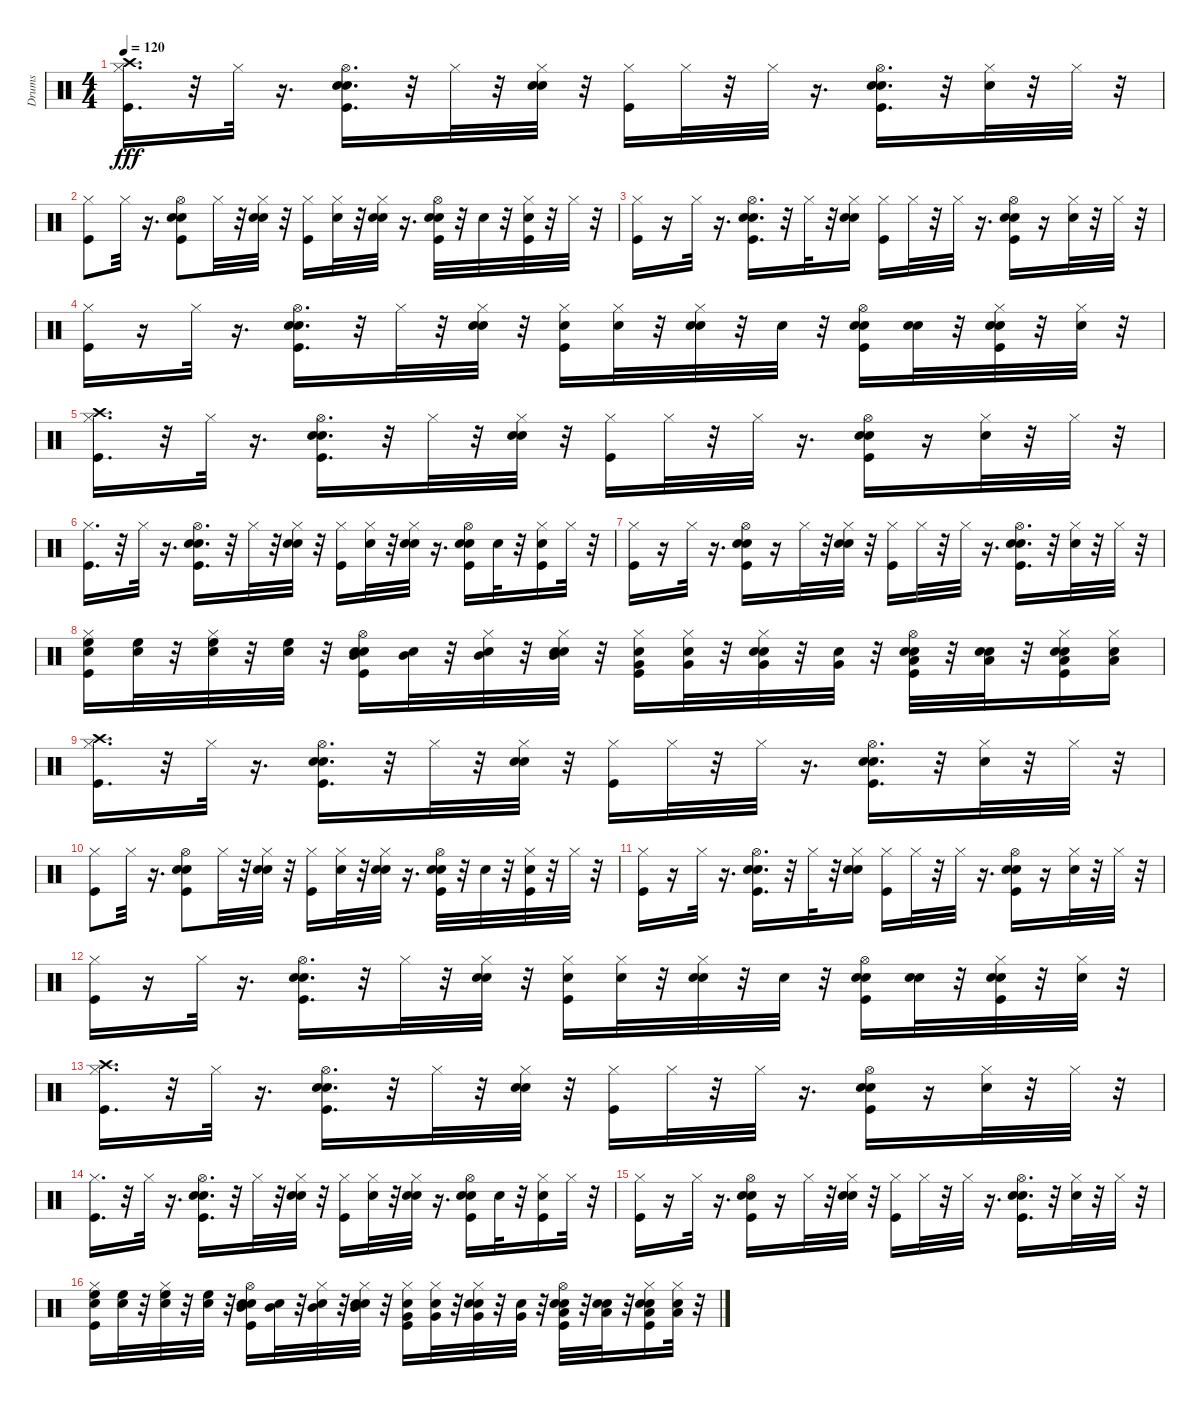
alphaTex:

\track ("Drums" "Drums") {instrument percussion}
\staff {score}
\articulation defaults
\ts (4 4)
\tempo 120
\clef neutral
\ks c
("Hi-Hat (closed)" "Kick (hit)" "Crash high (hit)").16{d dy fff} r.32 "Hi-Hat (closed)".32 r.16{d} ("Hi-Hat (open)" "Kick (hit)" "Hand Clap (hit)" "Electric Snare (hit)").16{d} r.32 "Hi-Hat (closed)".32 r.32 ("Hi-Hat (closed)" "Hand Clap (hit)" "Electric Snare (hit)").32 r.32 ("Hi-Hat (closed)" "Kick (hit)").16 "Hi-Hat (closed)".32 r.32 "Hi-Hat (closed)".32 r.16{d} ("Hi-Hat (open)" "Kick (hit)" "Hand Clap (hit)" "Electric Snare (hit)").16{d} r.32 ("Hi-Hat (closed)" "Hand Clap (hit)").32 r.32 "Hi-Hat (closed)".32 r.32 |
("Hi-Hat (closed)" "Kick (hit)").8 "Hi-Hat (closed)".32 r.16{d} ("Hi-Hat (open)" "Kick (hit)" "Hand Clap (hit)" "Electric Snare (hit)").8 "Hi-Hat (closed)".32 r.32 ("Hi-Hat (closed)" "Hand Clap (hit)" "Electric Snare (hit)").32 r.32 ("Hi-Hat (closed)" "Kick (hit)").16 ("Hi-Hat (closed)" "Electric Snare (hit)").32 r.32 ("Hi-Hat (closed)" "Hand Clap (hit)" "Electric Snare (hit)").32 r.16{d} ("Hi-Hat (open)" "Kick (hit)" "Hand Clap (hit)" "Electric Snare (hit)").32 r.32 "Hand Clap (hit)".32 r.32 ("Hi-Hat (closed)" "Kick (hit)" "Hand Clap (hit)").32 r.32 "Hi-Hat (closed)".32 r.32 |
("Hi-Hat (closed)" "Kick (hit)").16 r.16 "Hi-Hat (closed)".32 r.16{d} ("Hi-Hat (open)" "Kick (hit)" "Hand Clap (hit)" "Electric Snare (hit)").16{d} r.32 "Hi-Hat (closed)".32 r.32 ("Hi-Hat (closed)" "Hand Clap (hit)" "Electric Snare (hit)").16 ("Hi-Hat (closed)" "Kick (hit)").16 "Hi-Hat (closed)".32 r.32 "Hi-Hat (closed)".32 r.16{d} ("Hi-Hat (open)" "Kick (hit)" "Hand Clap (hit)" "Electric Snare (hit)").16 r.16 ("Hi-Hat (closed)" "Hand Clap (hit)").32 r.32 "Hi-Hat (closed)".32 r.32 |
("Hi-Hat (closed)" "Kick (hit)").16 r.16 "Hi-Hat (closed)".32 r.16{d} ("Hi-Hat (open)" "Kick (hit)" "Hand Clap (hit)" "Electric Snare (hit)").16{d} r.32 "Hi-Hat (closed)".32 r.32 ("Hi-Hat (closed)" "Hand Clap (hit)" "Electric Snare (hit)").32 r.32 ("Hi-Hat (closed)" "Kick (hit)" "Electric Snare (hit)").16 ("Hi-Hat (closed)" "Electric Snare (hit)").32 r.32 ("Hi-Hat (closed)" "Hand Clap (hit)" "Electric Snare (hit)").32 r.32 "Electric Snare (hit)".32 r.32 ("Hi-Hat (open)" "Kick (hit)" "Hand Clap (hit)" "Electric Snare (hit)").16 ("Hand Clap (hit)" "Electric Snare (hit)").32 r.32 ("Hi-Hat (closed)" "Kick (hit)" "Hand Clap (hit)" "Electric Snare (hit)").32 r.32 ("Hi-Hat (closed)" "Electric Snare (hit)").32 r.32 |
("Hi-Hat (closed)" "Kick (hit)" "Crash high (hit)").16{d} r.32 "Hi-Hat (closed)".32 r.16{d} ("Hi-Hat (open)" "Kick (hit)" "Hand Clap (hit)" "Electric Snare (hit)").16{d} r.32 "Hi-Hat (closed)".32 r.32 ("Hi-Hat (closed)" "Hand Clap (hit)" "Electric Snare (hit)").32 r.32 ("Hi-Hat (closed)" "Kick (hit)").16 "Hi-Hat (closed)".32 r.32 "Hi-Hat (closed)".32 r.16{d} ("Hi-Hat (open)" "Kick (hit)" "Hand Clap (hit)" "Electric Snare (hit)").16 r.16 ("Hi-Hat (closed)" "Hand Clap (hit)").32 r.32 "Hi-Hat (closed)".32 r.32 |
("Hi-Hat (closed)" "Kick (hit)").16{d} r.32 "Hi-Hat (closed)".32 r.16{d} ("Hi-Hat (open)" "Kick (hit)" "Hand Clap (hit)" "Electric Snare (hit)").16{d} r.32 "Hi-Hat (closed)".32 r.32 ("Hi-Hat (closed)" "Hand Clap (hit)" "Electric Snare (hit)").32 r.32 ("Hi-Hat (closed)" "Kick (hit)").16 ("Hi-Hat (closed)" "Electric Snare (hit)").32 r.32 ("Hi-Hat (closed)" "Hand Clap (hit)" "Electric Snare (hit)").32 r.16{d} ("Hi-Hat (open)" "Kick (hit)" "Hand Clap (hit)" "Electric Snare (hit)").16 "Hand Clap (hit)".32 r.32 ("Hi-Hat (closed)" "Kick (hit)" "Hand Clap (hit)").16 "Hi-Hat (closed)".32 r.32 |
("Hi-Hat (closed)" "Kick (hit)").16 r.16 "Hi-Hat (closed)".32 r.16{d} ("Hi-Hat (open)" "Kick (hit)" "Hand Clap (hit)" "Electric Snare (hit)").16 r.16 "Hi-Hat (closed)".32 r.32 ("Hi-Hat (closed)" "Hand Clap (hit)" "Electric Snare (hit)").32 r.32 ("Hi-Hat (closed)" "Kick (hit)").16 "Hi-Hat (closed)".32 r.32 "Hi-Hat (closed)".32 r.16{d} ("Hi-Hat (open)" "Kick (hit)" "Hand Clap (hit)" "Electric Snare (hit)").16{d} r.32 ("Hi-Hat (closed)" "Hand Clap (hit)").32 r.32 "Hi-Hat (closed)".32 r.32 |
("Hi-Hat (closed)" "Kick (hit)" "High Floor Tom (hit)" "Electric Snare (hit)").16 ("High Floor Tom (hit)" "Electric Snare (hit)").32 r.32 ("Hi-Hat (closed)" "Electric Snare (hit)" "High Floor Tom (hit)").32 r.32 ("High Floor Tom (hit)" "Electric Snare (hit)").32 r.32 ("Hi-Hat (open)" "Kick (hit)" "Mid Tom (hit)" "Hand Clap (hit)" "Electric Snare (hit)").16 ("Mid Tom (hit)" "Electric Snare (hit)").32 r.32 ("Hi-Hat (closed)" "Electric Snare (hit)" "Mid Tom (hit)").32 r.32 ("Hi-Hat (closed)" "Hand Clap (hit)" "Mid Tom (hit)" "Electric Snare (hit)").32 r.32 ("Hi-Hat (closed)" "Kick (hit)" "Very Low Tom (hit)" "Electric Snare (hit)").16 ("Hi-Hat (closed)" "Electric Snare (hit)" "Very Low Tom (hit)").32 r.32 ("Hi-Hat (closed)" "Hand Clap (hit)" "Very Low Tom (hit)" "Electric Snare (hit)").32 r.32 ("Very Low Tom (hit)" "Electric Snare (hit)").32 r.32 ("Low Floor Tom (hit)" "Kick (hit)" "Hi-Hat (open)" "Hand Clap (hit)" "Electric Snare (hit)").32 r.32 ("Low Floor Tom (hit)" "Hand Clap (hit)" "Electric Snare (hit)").32 r.32 ("Low Floor Tom (hit)" "Kick (hit)" "Hi-Hat (closed)" "Hand Clap (hit)" "Electric Snare (hit)").16 ("Low Floor Tom (hit)" "Electric Snare (hit)" "Hi-Hat (closed)").16 |
("Hi-Hat (closed)" "Kick (hit)" "Crash high (hit)").16{d} r.32 "Hi-Hat (closed)".32 r.16{d} ("Hi-Hat (open)" "Kick (hit)" "Hand Clap (hit)" "Electric Snare (hit)").16{d} r.32 "Hi-Hat (closed)".32 r.32 ("Hi-Hat (closed)" "Hand Clap (hit)" "Electric Snare (hit)").32 r.32 ("Hi-Hat (closed)" "Kick (hit)").16 "Hi-Hat (closed)".32 r.32 "Hi-Hat (closed)".32 r.16{d} ("Hi-Hat (open)" "Kick (hit)" "Hand Clap (hit)" "Electric Snare (hit)").16{d} r.32 ("Hi-Hat (closed)" "Hand Clap (hit)").32 r.32 "Hi-Hat (closed)".32 r.32 |
("Hi-Hat (closed)" "Kick (hit)").8 "Hi-Hat (closed)".32 r.16{d} ("Hi-Hat (open)" "Kick (hit)" "Hand Clap (hit)" "Electric Snare (hit)").8 "Hi-Hat (closed)".32 r.32 ("Hi-Hat (closed)" "Hand Clap (hit)" "Electric Snare (hit)").32 r.32 ("Hi-Hat (closed)" "Kick (hit)").16 ("Hi-Hat (closed)" "Electric Snare (hit)").32 r.32 ("Hi-Hat (closed)" "Hand Clap (hit)" "Electric Snare (hit)").32 r.16{d} ("Hi-Hat (open)" "Kick (hit)" "Hand Clap (hit)" "Electric Snare (hit)").32 r.32 "Hand Clap (hit)".32 r.32 ("Hi-Hat (closed)" "Kick (hit)" "Hand Clap (hit)").32 r.32 "Hi-Hat (closed)".32 r.32 |
("Hi-Hat (closed)" "Kick (hit)").16 r.16 "Hi-Hat (closed)".32 r.16{d} ("Hi-Hat (open)" "Kick (hit)" "Hand Clap (hit)" "Electric Snare (hit)").16{d} r.32 "Hi-Hat (closed)".32 r.32 ("Hi-Hat (closed)" "Hand Clap (hit)" "Electric Snare (hit)").16 ("Hi-Hat (closed)" "Kick (hit)").16 "Hi-Hat (closed)".32 r.32 "Hi-Hat (closed)".32 r.16{d} ("Hi-Hat (open)" "Kick (hit)" "Hand Clap (hit)" "Electric Snare (hit)").16 r.16 ("Hi-Hat (closed)" "Hand Clap (hit)").32 r.32 "Hi-Hat (closed)".32 r.32 |
("Hi-Hat (closed)" "Kick (hit)").16 r.16 "Hi-Hat (closed)".32 r.16{d} ("Hi-Hat (open)" "Kick (hit)" "Hand Clap (hit)" "Electric Snare (hit)").16{d} r.32 "Hi-Hat (closed)".32 r.32 ("Hi-Hat (closed)" "Hand Clap (hit)" "Electric Snare (hit)").32 r.32 ("Hi-Hat (closed)" "Kick (hit)" "Electric Snare (hit)").16 ("Hi-Hat (closed)" "Electric Snare (hit)").32 r.32 ("Hi-Hat (closed)" "Hand Clap (hit)" "Electric Snare (hit)").32 r.32 "Electric Snare (hit)".32 r.32 ("Hi-Hat (open)" "Kick (hit)" "Hand Clap (hit)" "Electric Snare (hit)").16 ("Hand Clap (hit)" "Electric Snare (hit)").32 r.32 ("Hi-Hat (closed)" "Kick (hit)" "Hand Clap (hit)" "Electric Snare (hit)").32 r.32 ("Hi-Hat (closed)" "Electric Snare (hit)").32 r.32 |
("Hi-Hat (closed)" "Kick (hit)" "Crash high (hit)").16{d} r.32 "Hi-Hat (closed)".32 r.16{d} ("Hi-Hat (open)" "Kick (hit)" "Hand Clap (hit)" "Electric Snare (hit)").16{d} r.32 "Hi-Hat (closed)".32 r.32 ("Hi-Hat (closed)" "Hand Clap (hit)" "Electric Snare (hit)").32 r.32 ("Hi-Hat (closed)" "Kick (hit)").16 "Hi-Hat (closed)".32 r.32 "Hi-Hat (closed)".32 r.16{d} ("Hi-Hat (open)" "Kick (hit)" "Hand Clap (hit)" "Electric Snare (hit)").16 r.16 ("Hi-Hat (closed)" "Hand Clap (hit)").32 r.32 "Hi-Hat (closed)".32 r.32 |
("Hi-Hat (closed)" "Kick (hit)").16{d} r.32 "Hi-Hat (closed)".32 r.16{d} ("Hi-Hat (open)" "Kick (hit)" "Hand Clap (hit)" "Electric Snare (hit)").16{d} r.32 "Hi-Hat (closed)".32 r.32 ("Hi-Hat (closed)" "Hand Clap (hit)" "Electric Snare (hit)").32 r.32 ("Hi-Hat (closed)" "Kick (hit)").16 ("Hi-Hat (closed)" "Electric Snare (hit)").32 r.32 ("Hi-Hat (closed)" "Hand Clap (hit)" "Electric Snare (hit)").32 r.16{d} ("Hi-Hat (open)" "Kick (hit)" "Hand Clap (hit)" "Electric Snare (hit)").16 "Hand Clap (hit)".32 r.32 ("Hi-Hat (closed)" "Kick (hit)" "Hand Clap (hit)").16 "Hi-Hat (closed)".32 r.32 |
("Hi-Hat (closed)" "Kick (hit)").16 r.16 "Hi-Hat (closed)".32 r.16{d} ("Hi-Hat (open)" "Kick (hit)" "Hand Clap (hit)" "Electric Snare (hit)").16 r.16 "Hi-Hat (closed)".32 r.32 ("Hi-Hat (closed)" "Hand Clap (hit)" "Electric Snare (hit)").32 r.32 ("Hi-Hat (closed)" "Kick (hit)").16 "Hi-Hat (closed)".32 r.32 "Hi-Hat (closed)".32 r.16{d} ("Hi-Hat (open)" "Kick (hit)" "Hand Clap (hit)" "Electric Snare (hit)").16{d} r.32 ("Hi-Hat (closed)" "Hand Clap (hit)").32 r.32 "Hi-Hat (closed)".32 r.32 |
("Hi-Hat (closed)" "Kick (hit)" "High Floor Tom (hit)" "Electric Snare (hit)").16 ("High Floor Tom (hit)" "Electric Snare (hit)").32 r.32 ("Hi-Hat (closed)" "Electric Snare (hit)" "High Floor Tom (hit)").32 r.32 ("High Floor Tom (hit)" "Electric Snare (hit)").32 r.32 ("Hi-Hat (open)" "Kick (hit)" "Mid Tom (hit)" "Hand Clap (hit)" "Electric Snare (hit)").16 ("Mid Tom (hit)" "Electric Snare (hit)").32 r.32 ("Hi-Hat (closed)" "Electric Snare (hit)" "Mid Tom (hit)").32 r.32 ("Hi-Hat (closed)" "Hand Clap (hit)" "Mid Tom (hit)" "Electric Snare (hit)").32 r.32 ("Hi-Hat (closed)" "Kick (hit)" "Very Low Tom (hit)" "Electric Snare (hit)").16 ("Hi-Hat (closed)" "Electric Snare (hit)" "Very Low Tom (hit)").32 r.32 ("Hi-Hat (closed)" "Hand Clap (hit)" "Very Low Tom (hit)" "Electric Snare (hit)").32 r.32 ("Very Low Tom (hit)" "Electric Snare (hit)").32 r.32 ("Low Floor Tom (hit)" "Kick (hit)" "Hi-Hat (open)" "Hand Clap (hit)" "Electric Snare (hit)").32 r.32 ("Low Floor Tom (hit)" "Hand Clap (hit)" "Electric Snare (hit)").32 r.32 ("Low Floor Tom (hit)" "Kick (hit)" "Hi-Hat (closed)" "Hand Clap (hit)" "Electric Snare (hit)").16 ("Low Floor Tom (hit)" "Electric Snare (hit)" "Hi-Hat (closed)").32 r.32
